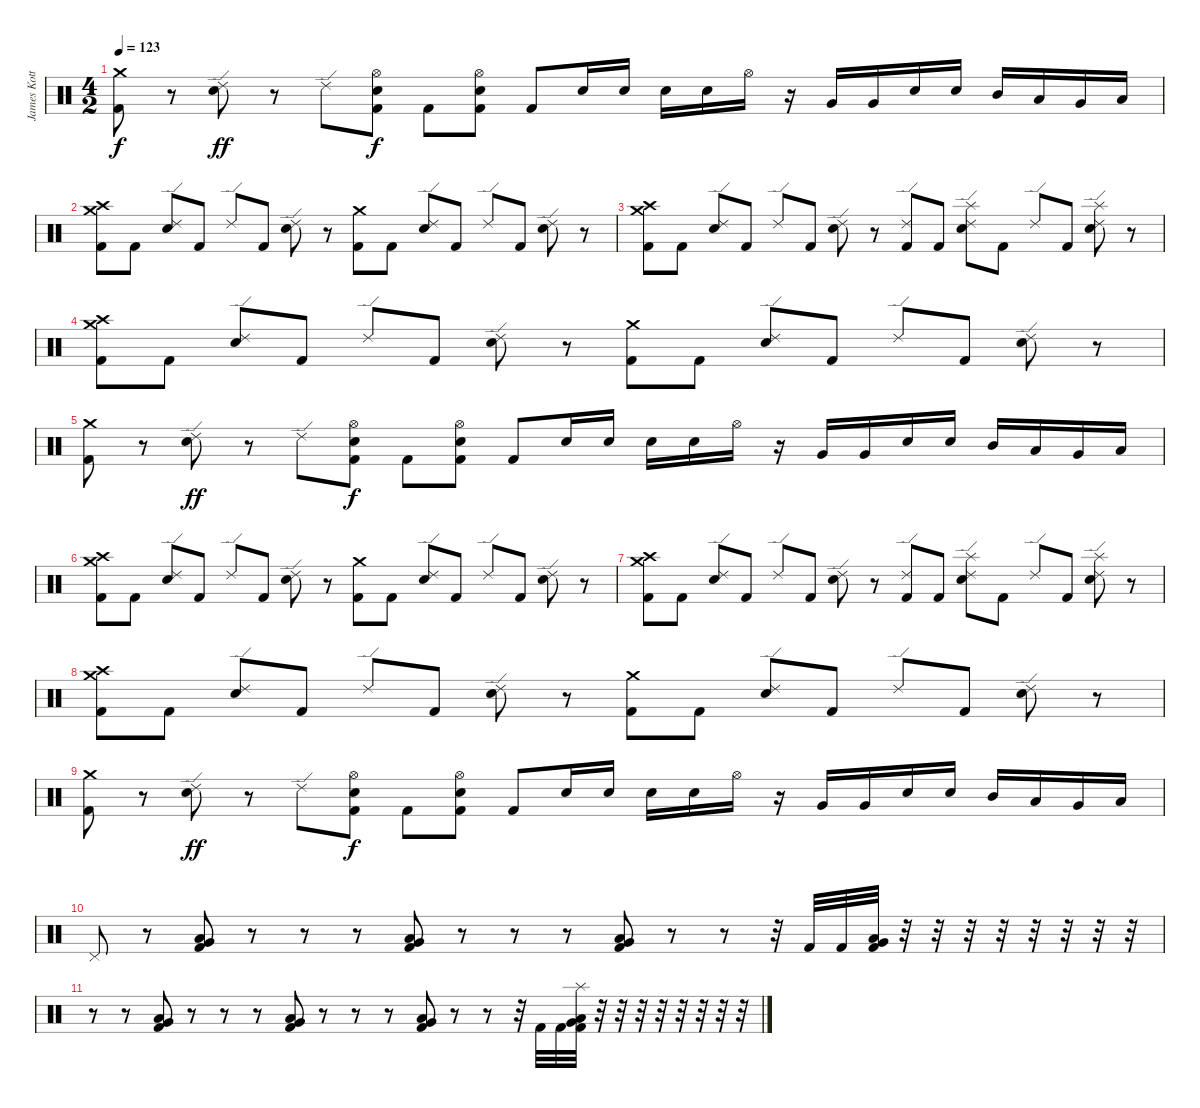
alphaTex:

\track ("James Kottak" "James Kott") {instrument percussion}
\staff {score}
\articulation defaults
\ts (4 2)
\tempo 123
\clef neutral
\ks c
("Crash medium (hit)" "Kick (hit) 2").8{dy f} r.8 ("Ride (edge) 2" "Electric Snare (hit)").8{dy ff} r.8 "Ride (edge) 2".8 ("Hi-Hat (open)" "Electric Snare (hit)" "Kick (hit) 2").8{dy f} "Kick (hit) 2".8 ("Hi-Hat (open)" "Electric Snare (hit)" "Kick (hit) 2").8 "Kick (hit) 2".8 "Electric Snare (hit)".16 "Electric Snare (hit)".16 "Electric Snare (hit)".16 "Electric Snare (hit)".16 "Hi-Hat (open)".16 r.16 "Very Low Tom (hit)".16 "Very Low Tom (hit)".16 "Electric Snare (hit)".16 "Electric Snare (hit)".16 "Mid Tom (hit)".16 "Low Tom (hit)".16 "Very Low Tom (hit)".16 "Low Floor Tom (hit)".16 |
("Crash medium (hit)" "Crash high (hit)" "Kick (hit) 2").8 "Kick (hit) 2".8 ("Ride (edge) 2" "Electric Snare (hit)").8 "Kick (hit) 2".8 "Ride (edge) 2".8 "Kick (hit) 2".8 ("Ride (edge) 2" "Electric Snare (hit)").8 r.8 ("Crash medium (hit)" "Kick (hit) 2").8 "Kick (hit) 2".8 ("Ride (edge) 2" "Electric Snare (hit)").8 "Kick (hit) 2".8 "Ride (edge) 2".8 "Kick (hit) 2".8 ("Ride (edge) 2" "Electric Snare (hit)").8 r.8 |
("Crash medium (hit)" "Crash high (hit)" "Kick (hit) 2").8 "Kick (hit) 2".8 ("Ride (edge) 2" "Electric Snare (hit)").8 "Kick (hit) 2".8 "Ride (edge) 2".8 "Kick (hit) 2".8 ("Ride (edge) 2" "Electric Snare (hit)").8 r.8 ("Ride (edge) 2" "Kick (hit) 2").8 "Kick (hit) 2".8 ("Splash (hit)" "Ride (edge) 2" "Electric Snare (hit)").8 "Kick (hit) 2".8 "Ride (edge) 2".8 "Kick (hit) 2".8 ("Splash (hit)" "Ride (edge) 2" "Electric Snare (hit)").8 r.8 |
("Crash medium (hit)" "Crash high (hit)" "Kick (hit) 2").8 "Kick (hit) 2".8 ("Ride (edge) 2" "Electric Snare (hit)").8 "Kick (hit) 2".8 "Ride (edge) 2".8 "Kick (hit) 2".8 ("Ride (edge) 2" "Electric Snare (hit)").8 r.8 ("Crash medium (hit)" "Kick (hit) 2").8 "Kick (hit) 2".8 ("Ride (edge) 2" "Electric Snare (hit)").8 "Kick (hit) 2".8 "Ride (edge) 2".8 "Kick (hit) 2".8 ("Ride (edge) 2" "Electric Snare (hit)").8 r.8 |
("Crash medium (hit)" "Kick (hit) 2").8 r.8 ("Ride (edge) 2" "Electric Snare (hit)").8{dy ff} r.8 "Ride (edge) 2".8 ("Hi-Hat (open)" "Electric Snare (hit)" "Kick (hit) 2").8{dy f} "Kick (hit) 2".8 ("Hi-Hat (open)" "Electric Snare (hit)" "Kick (hit) 2").8 "Kick (hit) 2".8 "Electric Snare (hit)".16 "Electric Snare (hit)".16 "Electric Snare (hit)".16 "Electric Snare (hit)".16 "Hi-Hat (open)".16 r.16 "Very Low Tom (hit)".16 "Very Low Tom (hit)".16 "Electric Snare (hit)".16 "Electric Snare (hit)".16 "Mid Tom (hit)".16 "Low Tom (hit)".16 "Very Low Tom (hit)".16 "Low Floor Tom (hit)".16 |
("Crash medium (hit)" "Crash high (hit)" "Kick (hit) 2").8 "Kick (hit) 2".8 ("Ride (edge) 2" "Electric Snare (hit)").8 "Kick (hit) 2".8 "Ride (edge) 2".8 "Kick (hit) 2".8 ("Ride (edge) 2" "Electric Snare (hit)").8 r.8 ("Crash medium (hit)" "Kick (hit) 2").8 "Kick (hit) 2".8 ("Ride (edge) 2" "Electric Snare (hit)").8 "Kick (hit) 2".8 "Ride (edge) 2".8 "Kick (hit) 2".8 ("Ride (edge) 2" "Electric Snare (hit)").8 r.8 |
("Crash medium (hit)" "Crash high (hit)" "Kick (hit) 2").8 "Kick (hit) 2".8 ("Ride (edge) 2" "Electric Snare (hit)").8 "Kick (hit) 2".8 "Ride (edge) 2".8 "Kick (hit) 2".8 ("Ride (edge) 2" "Electric Snare (hit)").8 r.8 ("Ride (edge) 2" "Kick (hit) 2").8 "Kick (hit) 2".8 ("Splash (hit)" "Ride (edge) 2" "Electric Snare (hit)").8 "Kick (hit) 2".8 "Ride (edge) 2".8 "Kick (hit) 2".8 ("Splash (hit)" "Ride (edge) 2" "Electric Snare (hit)").8 r.8 |
("Crash medium (hit)" "Crash high (hit)" "Kick (hit) 2").8 "Kick (hit) 2".8 ("Ride (edge) 2" "Electric Snare (hit)").8 "Kick (hit) 2".8 "Ride (edge) 2".8 "Kick (hit) 2".8 ("Ride (edge) 2" "Electric Snare (hit)").8 r.8 ("Crash medium (hit)" "Kick (hit) 2").8 "Kick (hit) 2".8 ("Ride (edge) 2" "Electric Snare (hit)").8 "Kick (hit) 2".8 "Ride (edge) 2".8 "Kick (hit) 2".8 ("Ride (edge) 2" "Electric Snare (hit)").8 r.8 |
("Crash medium (hit)" "Kick (hit) 2").8 r.8 ("Ride (edge) 2" "Electric Snare (hit)").8{dy ff} r.8 "Ride (edge) 2".8 ("Hi-Hat (open)" "Electric Snare (hit)" "Kick (hit) 2").8{dy f} "Kick (hit) 2".8 ("Hi-Hat (open)" "Electric Snare (hit)" "Kick (hit) 2").8 "Kick (hit) 2".8 "Electric Snare (hit)".16 "Electric Snare (hit)".16 "Electric Snare (hit)".16 "Electric Snare (hit)".16 "Hi-Hat (open)".16 r.16 "Very Low Tom (hit)".16 "Very Low Tom (hit)".16 "Electric Snare (hit)".16 "Electric Snare (hit)".16 "Mid Tom (hit)".16 "Low Tom (hit)".16 "Very Low Tom (hit)".16 "Low Floor Tom (hit)".16 |
"Pedal Hi-Hat (hit)".8 r.8 ("Very Low Tom (hit)" "Kick (hit) 2" "Low Floor Tom (hit)").8 r.8 r.8 r.8 ("Very Low Tom (hit)" "Kick (hit) 2" "Low Floor Tom (hit)").8 r.8 r.8 r.8 ("Very Low Tom (hit)" "Kick (hit) 2" "Low Floor Tom (hit)").8 r.8 r.8 r.32 "Kick (hit) 2".32 "Kick (hit) 2".32 ("Very Low Tom (hit)" "Kick (hit) 2" "Low Floor Tom (hit)").32 r.32 r.32 r.32 r.32 r.32 r.32 r.32 r.32 |
r.8 r.8 ("Very Low Tom (hit)" "Kick (hit) 2" "Low Floor Tom (hit)").8 r.8 r.8 r.8 ("Very Low Tom (hit)" "Kick (hit) 2" "Low Floor Tom (hit)").8 r.8 r.8 r.8 ("Very Low Tom (hit)" "Kick (hit) 2" "Low Floor Tom (hit)").8 r.8 r.8 r.32 "Kick (hit) 2".32 "Kick (hit) 2".32 ("Splash (hit)" "Very Low Tom (hit)" "Kick (hit) 2" "Low Floor Tom (hit)").32 r.32 r.32 r.32 r.32 r.32 r.32 r.32 r.32
